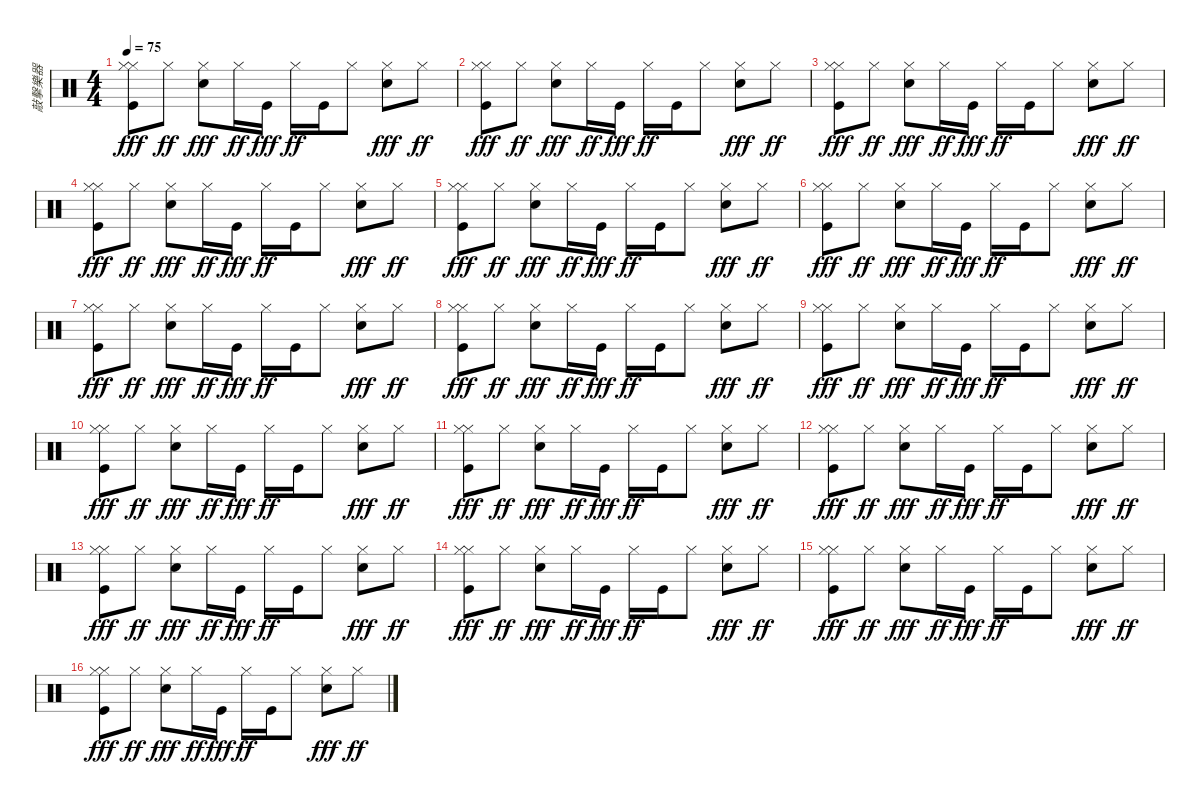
\track ("敲擊樂器" "敲擊樂器") {instrument percussion}
\staff {score}
\articulation defaults
\ts (4 4)
\tempo 75
\clef neutral
\ks c
("Hi-Hat (closed)" "Hi-Hat (closed)" "Kick (hit)").8{dy fff} "Hi-Hat (closed)".8{dy ff} ("Hi-Hat (closed)" "Snare (hit) 2").8{dy fff} "Hi-Hat (closed)".16{dy ff} "Kick (hit)".16{dy fff} "Hi-Hat (closed)".16{dy ff} "Kick (hit)".16 "Hi-Hat (closed)".8 ("Hi-Hat (closed)" "Snare (hit) 2").8{dy fff} "Hi-Hat (closed)".8{dy ff} |
("Hi-Hat (closed)" "Hi-Hat (closed)" "Kick (hit)").8{dy fff} "Hi-Hat (closed)".8{dy ff} ("Hi-Hat (closed)" "Snare (hit) 2").8{dy fff} "Hi-Hat (closed)".16{dy ff} "Kick (hit)".16{dy fff} "Hi-Hat (closed)".16{dy ff} "Kick (hit)".16 "Hi-Hat (closed)".8 ("Hi-Hat (closed)" "Snare (hit) 2").8{dy fff} "Hi-Hat (closed)".8{dy ff} |
("Hi-Hat (closed)" "Hi-Hat (closed)" "Kick (hit)").8{dy fff} "Hi-Hat (closed)".8{dy ff} ("Hi-Hat (closed)" "Snare (hit) 2").8{dy fff} "Hi-Hat (closed)".16{dy ff} "Kick (hit)".16{dy fff} "Hi-Hat (closed)".16{dy ff} "Kick (hit)".16 "Hi-Hat (closed)".8 ("Hi-Hat (closed)" "Snare (hit) 2").8{dy fff} "Hi-Hat (closed)".8{dy ff} |
("Hi-Hat (closed)" "Hi-Hat (closed)" "Kick (hit)").8{dy fff} "Hi-Hat (closed)".8{dy ff} ("Hi-Hat (closed)" "Snare (hit) 2").8{dy fff} "Hi-Hat (closed)".16{dy ff} "Kick (hit)".16{dy fff} "Hi-Hat (closed)".16{dy ff} "Kick (hit)".16 "Hi-Hat (closed)".8 ("Hi-Hat (closed)" "Snare (hit) 2").8{dy fff} "Hi-Hat (closed)".8{dy ff} |
("Hi-Hat (closed)" "Hi-Hat (closed)" "Kick (hit)").8{dy fff} "Hi-Hat (closed)".8{dy ff} ("Hi-Hat (closed)" "Snare (hit) 2").8{dy fff} "Hi-Hat (closed)".16{dy ff} "Kick (hit)".16{dy fff} "Hi-Hat (closed)".16{dy ff} "Kick (hit)".16 "Hi-Hat (closed)".8 ("Hi-Hat (closed)" "Snare (hit) 2").8{dy fff} "Hi-Hat (closed)".8{dy ff} |
("Hi-Hat (closed)" "Hi-Hat (closed)" "Kick (hit)").8{dy fff} "Hi-Hat (closed)".8{dy ff} ("Hi-Hat (closed)" "Snare (hit) 2").8{dy fff} "Hi-Hat (closed)".16{dy ff} "Kick (hit)".16{dy fff} "Hi-Hat (closed)".16{dy ff} "Kick (hit)".16 "Hi-Hat (closed)".8 ("Hi-Hat (closed)" "Snare (hit) 2").8{dy fff} "Hi-Hat (closed)".8{dy ff} |
("Hi-Hat (closed)" "Hi-Hat (closed)" "Kick (hit)").8{dy fff} "Hi-Hat (closed)".8{dy ff} ("Hi-Hat (closed)" "Snare (hit) 2").8{dy fff} "Hi-Hat (closed)".16{dy ff} "Kick (hit)".16{dy fff} "Hi-Hat (closed)".16{dy ff} "Kick (hit)".16 "Hi-Hat (closed)".8 ("Hi-Hat (closed)" "Snare (hit) 2").8{dy fff} "Hi-Hat (closed)".8{dy ff} |
("Hi-Hat (closed)" "Hi-Hat (closed)" "Kick (hit)").8{dy fff} "Hi-Hat (closed)".8{dy ff} ("Hi-Hat (closed)" "Snare (hit) 2").8{dy fff} "Hi-Hat (closed)".16{dy ff} "Kick (hit)".16{dy fff} "Hi-Hat (closed)".16{dy ff} "Kick (hit)".16 "Hi-Hat (closed)".8 ("Hi-Hat (closed)" "Snare (hit) 2").8{dy fff} "Hi-Hat (closed)".8{dy ff} |
("Hi-Hat (closed)" "Hi-Hat (closed)" "Kick (hit)").8{dy fff} "Hi-Hat (closed)".8{dy ff} ("Hi-Hat (closed)" "Snare (hit) 2").8{dy fff} "Hi-Hat (closed)".16{dy ff} "Kick (hit)".16{dy fff} "Hi-Hat (closed)".16{dy ff} "Kick (hit)".16 "Hi-Hat (closed)".8 ("Hi-Hat (closed)" "Snare (hit) 2").8{dy fff} "Hi-Hat (closed)".8{dy ff} |
("Hi-Hat (closed)" "Hi-Hat (closed)" "Kick (hit)").8{dy fff} "Hi-Hat (closed)".8{dy ff} ("Hi-Hat (closed)" "Snare (hit) 2").8{dy fff} "Hi-Hat (closed)".16{dy ff} "Kick (hit)".16{dy fff} "Hi-Hat (closed)".16{dy ff} "Kick (hit)".16 "Hi-Hat (closed)".8 ("Hi-Hat (closed)" "Snare (hit) 2").8{dy fff} "Hi-Hat (closed)".8{dy ff} |
("Hi-Hat (closed)" "Hi-Hat (closed)" "Kick (hit)").8{dy fff} "Hi-Hat (closed)".8{dy ff} ("Hi-Hat (closed)" "Snare (hit) 2").8{dy fff} "Hi-Hat (closed)".16{dy ff} "Kick (hit)".16{dy fff} "Hi-Hat (closed)".16{dy ff} "Kick (hit)".16 "Hi-Hat (closed)".8 ("Hi-Hat (closed)" "Snare (hit) 2").8{dy fff} "Hi-Hat (closed)".8{dy ff} |
("Hi-Hat (closed)" "Hi-Hat (closed)" "Kick (hit)").8{dy fff} "Hi-Hat (closed)".8{dy ff} ("Hi-Hat (closed)" "Snare (hit) 2").8{dy fff} "Hi-Hat (closed)".16{dy ff} "Kick (hit)".16{dy fff} "Hi-Hat (closed)".16{dy ff} "Kick (hit)".16 "Hi-Hat (closed)".8 ("Hi-Hat (closed)" "Snare (hit) 2").8{dy fff} "Hi-Hat (closed)".8{dy ff} |
("Hi-Hat (closed)" "Hi-Hat (closed)" "Kick (hit)").8{dy fff} "Hi-Hat (closed)".8{dy ff} ("Hi-Hat (closed)" "Snare (hit) 2").8{dy fff} "Hi-Hat (closed)".16{dy ff} "Kick (hit)".16{dy fff} "Hi-Hat (closed)".16{dy ff} "Kick (hit)".16 "Hi-Hat (closed)".8 ("Hi-Hat (closed)" "Snare (hit) 2").8{dy fff} "Hi-Hat (closed)".8{dy ff} |
("Hi-Hat (closed)" "Hi-Hat (closed)" "Kick (hit)").8{dy fff} "Hi-Hat (closed)".8{dy ff} ("Hi-Hat (closed)" "Snare (hit) 2").8{dy fff} "Hi-Hat (closed)".16{dy ff} "Kick (hit)".16{dy fff} "Hi-Hat (closed)".16{dy ff} "Kick (hit)".16 "Hi-Hat (closed)".8 ("Hi-Hat (closed)" "Snare (hit) 2").8{dy fff} "Hi-Hat (closed)".8{dy ff} |
("Hi-Hat (closed)" "Hi-Hat (closed)" "Kick (hit)").8{dy fff} "Hi-Hat (closed)".8{dy ff} ("Hi-Hat (closed)" "Snare (hit) 2").8{dy fff} "Hi-Hat (closed)".16{dy ff} "Kick (hit)".16{dy fff} "Hi-Hat (closed)".16{dy ff} "Kick (hit)".16 "Hi-Hat (closed)".8 ("Hi-Hat (closed)" "Snare (hit) 2").8{dy fff} "Hi-Hat (closed)".8{dy ff} |
("Hi-Hat (closed)" "Hi-Hat (closed)" "Kick (hit)").8{dy fff} "Hi-Hat (closed)".8{dy ff} ("Hi-Hat (closed)" "Snare (hit) 2").8{dy fff} "Hi-Hat (closed)".16{dy ff} "Kick (hit)".16{dy fff} "Hi-Hat (closed)".16{dy ff} "Kick (hit)".16 "Hi-Hat (closed)".8 ("Hi-Hat (closed)" "Snare (hit) 2").8{dy fff} "Hi-Hat (closed)".8{dy ff}
